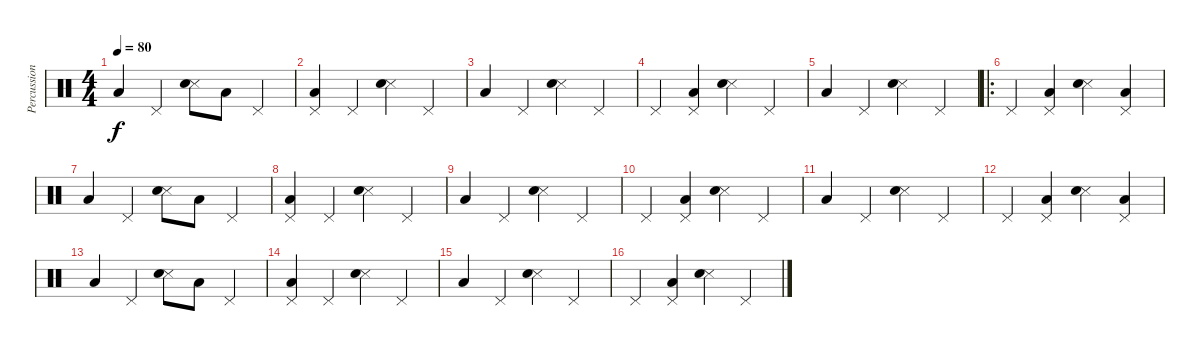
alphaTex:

\track ("Percussions" "Percussion") {instrument percussion}
\staff {score}
\articulation defaults
\ts (4 4)
\tempo 80
\clef neutral
\ks c "Low Floor Tom (hit)".4{dy f} "Pedal Hi-Hat (hit)".4
("Snare (side stick) 3" "Electric Snare (hit)").8 "Low Floor Tom (hit)".8 "Pedal Hi-Hat (hit)".4 |
("Pedal Hi-Hat (hit)" "Low Floor Tom (hit)").4 "Pedal Hi-Hat (hit)".4 ("Snare (side stick) 3" "Electric Snare (hit)").4 "Pedal Hi-Hat (hit)".4 |
"Low Floor Tom (hit)".4 "Pedal Hi-Hat (hit)".4 ("Snare (side stick) 3" "Electric Snare (hit)").4 "Pedal Hi-Hat (hit)".4 |
"Pedal Hi-Hat (hit)".4 ("Pedal Hi-Hat (hit)" "Low Floor Tom (hit)").4 ("Snare (side stick) 3" "Electric Snare (hit)").4 "Pedal Hi-Hat (hit)".4 |
"Low Floor Tom (hit)".4 "Pedal Hi-Hat (hit)".4 ("Snare (side stick) 3" "Electric Snare (hit)").4 "Pedal Hi-Hat (hit)".4 |
\ro "Pedal Hi-Hat (hit)".4
("Pedal Hi-Hat (hit)" "Low Floor Tom (hit)").4 ("Snare (side stick) 3" "Electric Snare (hit)").4 ("Pedal Hi-Hat (hit)" "Low Floor Tom (hit)").4 |
"Low Floor Tom (hit)".4 "Pedal Hi-Hat (hit)".4 ("Snare (side stick) 3" "Electric Snare (hit)").8 "Low Floor Tom (hit)".8 "Pedal Hi-Hat (hit)".4 |
("Pedal Hi-Hat (hit)" "Low Floor Tom (hit)").4 "Pedal Hi-Hat (hit)".4 ("Snare (side stick) 3" "Electric Snare (hit)").4 "Pedal Hi-Hat (hit)".4 |
"Low Floor Tom (hit)".4 "Pedal Hi-Hat (hit)".4 ("Snare (side stick) 3" "Electric Snare (hit)").4 "Pedal Hi-Hat (hit)".4 |
"Pedal Hi-Hat (hit)".4 ("Pedal Hi-Hat (hit)" "Low Floor Tom (hit)").4 ("Snare (side stick) 3" "Electric Snare (hit)").4 "Pedal Hi-Hat (hit)".4 |
"Low Floor Tom (hit)".4 "Pedal Hi-Hat (hit)".4 ("Snare (side stick) 3" "Electric Snare (hit)").4 "Pedal Hi-Hat (hit)".4 |
"Pedal Hi-Hat (hit)".4 ("Pedal Hi-Hat (hit)" "Low Floor Tom (hit)").4 ("Snare (side stick) 3" "Electric Snare (hit)").4 ("Pedal Hi-Hat (hit)" "Low Floor Tom (hit)").4 |
"Low Floor Tom (hit)".4 "Pedal Hi-Hat (hit)".4 ("Snare (side stick) 3" "Electric Snare (hit)").8 "Low Floor Tom (hit)".8 "Pedal Hi-Hat (hit)".4 |
("Pedal Hi-Hat (hit)" "Low Floor Tom (hit)").4 "Pedal Hi-Hat (hit)".4 ("Snare (side stick) 3" "Electric Snare (hit)").4 "Pedal Hi-Hat (hit)".4 |
"Low Floor Tom (hit)".4 "Pedal Hi-Hat (hit)".4 ("Snare (side stick) 3" "Electric Snare (hit)").4 "Pedal Hi-Hat (hit)".4 |
"Pedal Hi-Hat (hit)".4 ("Pedal Hi-Hat (hit)" "Low Floor Tom (hit)").4 ("Snare (side stick) 3" "Electric Snare (hit)").4 "Pedal Hi-Hat (hit)".4
